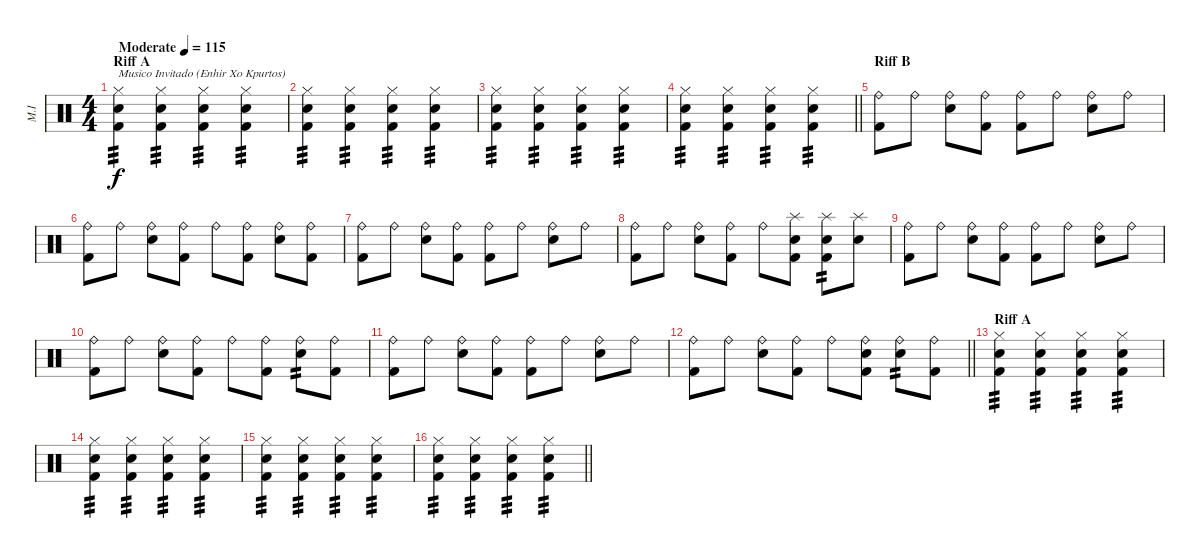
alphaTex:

\track ("M.I" "M.I") {instrument percussion}
\staff {score}
\articulation defaults
\ts (4 4)
\section ("" "Riff A")
\tempo (115 "Moderate")
\clef neutral
\ks c
("Hi-Hat (closed)" "Snare (hit) 2" "Kick (hit) 2").4{txt "Musico Invitado (Enhir Xo Kpurtos)" tp 3 dy f} ("Hi-Hat (closed)" "Snare (hit) 2" "Kick (hit) 2").4{tp 3} ("Hi-Hat (closed)" "Snare (hit) 2" "Kick (hit) 2").4{tp 3} ("Hi-Hat (closed)" "Snare (hit) 2" "Kick (hit) 2").4{tp 3} |
("Hi-Hat (closed)" "Snare (hit) 2" "Kick (hit) 2").4{tp 3} ("Hi-Hat (closed)" "Snare (hit) 2" "Kick (hit) 2").4{tp 3} ("Hi-Hat (closed)" "Snare (hit) 2" "Kick (hit) 2").4{tp 3} ("Hi-Hat (closed)" "Snare (hit) 2" "Kick (hit) 2").4{tp 3} |
("Hi-Hat (closed)" "Snare (hit) 2" "Kick (hit) 2").4{tp 3} ("Hi-Hat (closed)" "Snare (hit) 2" "Kick (hit) 2").4{tp 3} ("Hi-Hat (closed)" "Snare (hit) 2" "Kick (hit) 2").4{tp 3} ("Hi-Hat (closed)" "Snare (hit) 2" "Kick (hit) 2").4{tp 3} |
\barLineRight lightlight
("Hi-Hat (closed)" "Snare (hit) 2" "Kick (hit) 2").4{tp 3} ("Hi-Hat (closed)" "Snare (hit) 2" "Kick (hit) 2").4{tp 3} ("Hi-Hat (closed)" "Snare (hit) 2" "Kick (hit) 2").4{tp 3} ("Hi-Hat (closed)" "Snare (hit) 2" "Kick (hit) 2").4{tp 3} |
\section ("" "Riff B")
("Ride (bell)" "Kick (hit) 2").8 "Ride (bell)".8 ("Ride (bell)" "Snare (hit) 2").8 ("Ride (bell)" "Kick (hit) 2").8 ("Ride (bell)" "Kick (hit) 2").8 "Ride (bell)".8 ("Ride (bell)" "Snare (hit) 2").8 "Ride (bell)".8 |
("Ride (bell)" "Kick (hit) 2").8 "Ride (bell)".8 ("Ride (bell)" "Snare (hit) 2").8 ("Ride (bell)" "Kick (hit) 2").8 "Ride (bell)".8 ("Ride (bell)" "Kick (hit) 2").8 ("Ride (bell)" "Snare (hit) 2").8 ("Ride (bell)" "Kick (hit) 2").8 |
("Ride (bell)" "Kick (hit) 2").8 "Ride (bell)".8 ("Ride (bell)" "Snare (hit) 2").8 ("Ride (bell)" "Kick (hit) 2").8 ("Ride (bell)" "Kick (hit) 2").8 "Ride (bell)".8 ("Ride (bell)" "Snare (hit) 2").8 "Ride (bell)".8 |
("Ride (bell)" "Kick (hit) 2").8 "Ride (bell)".8 ("Ride (bell)" "Snare (hit) 2").8 ("Ride (bell)" "Kick (hit) 2").8 "Ride (bell)".8 ("Splash (hit)" "Snare (hit) 2" "Kick (hit) 2").8 ("Splash (hit)" "Snare (hit) 2" "Kick (hit) 2").8{tp 2} ("Splash (hit)" "Snare (hit) 2").8 |
("Ride (bell)" "Kick (hit) 2").8 "Ride (bell)".8 ("Ride (bell)" "Snare (hit) 2").8 ("Ride (bell)" "Kick (hit) 2").8 ("Ride (bell)" "Kick (hit) 2").8 "Ride (bell)".8 ("Ride (bell)" "Snare (hit) 2").8 "Ride (bell)".8 |
("Ride (bell)" "Kick (hit) 2").8 "Ride (bell)".8 ("Ride (bell)" "Snare (hit) 2").8 ("Ride (bell)" "Kick (hit) 2").8 "Ride (bell)".8 ("Ride (bell)" "Kick (hit) 2").8 ("Ride (bell)" "Snare (hit) 2").8{tp 2} ("Ride (bell)" "Kick (hit) 2").8 |
("Ride (bell)" "Kick (hit) 2").8 "Ride (bell)".8 ("Ride (bell)" "Snare (hit) 2").8 ("Ride (bell)" "Kick (hit) 2").8 ("Ride (bell)" "Kick (hit) 2").8 "Ride (bell)".8 ("Ride (bell)" "Snare (hit) 2").8 "Ride (bell)".8 |
\barLineRight lightlight
("Ride (bell)" "Kick (hit) 2").8 "Ride (bell)".8 ("Ride (bell)" "Snare (hit) 2").8 ("Ride (bell)" "Kick (hit) 2").8 "Ride (bell)".8 ("Ride (bell)" "Snare (hit) 2" "Kick (hit) 2").8 ("Ride (bell)" "Snare (hit) 2").8{tp 2} ("Ride (bell)" "Kick (hit) 2").8 |
\section ("" "Riff A")
("Hi-Hat (closed)" "Snare (hit) 2" "Kick (hit) 2").4{tp 3} ("Hi-Hat (closed)" "Snare (hit) 2" "Kick (hit) 2").4{tp 3} ("Hi-Hat (closed)" "Snare (hit) 2" "Kick (hit) 2").4{tp 3} ("Hi-Hat (closed)" "Snare (hit) 2" "Kick (hit) 2").4{tp 3} |
("Hi-Hat (closed)" "Snare (hit) 2" "Kick (hit) 2").4{tp 3} ("Hi-Hat (closed)" "Snare (hit) 2" "Kick (hit) 2").4{tp 3} ("Hi-Hat (closed)" "Snare (hit) 2" "Kick (hit) 2").4{tp 3} ("Hi-Hat (closed)" "Snare (hit) 2" "Kick (hit) 2").4{tp 3} |
("Hi-Hat (closed)" "Snare (hit) 2" "Kick (hit) 2").4{tp 3} ("Hi-Hat (closed)" "Snare (hit) 2" "Kick (hit) 2").4{tp 3} ("Hi-Hat (closed)" "Snare (hit) 2" "Kick (hit) 2").4{tp 3} ("Hi-Hat (closed)" "Snare (hit) 2" "Kick (hit) 2").4{tp 3} |
\barLineRight lightlight
("Hi-Hat (closed)" "Snare (hit) 2" "Kick (hit) 2").4{tp 3} ("Hi-Hat (closed)" "Snare (hit) 2" "Kick (hit) 2").4{tp 3} ("Hi-Hat (closed)" "Snare (hit) 2" "Kick (hit) 2").4{tp 3} ("Hi-Hat (closed)" "Snare (hit) 2" "Kick (hit) 2").4{tp 3}
